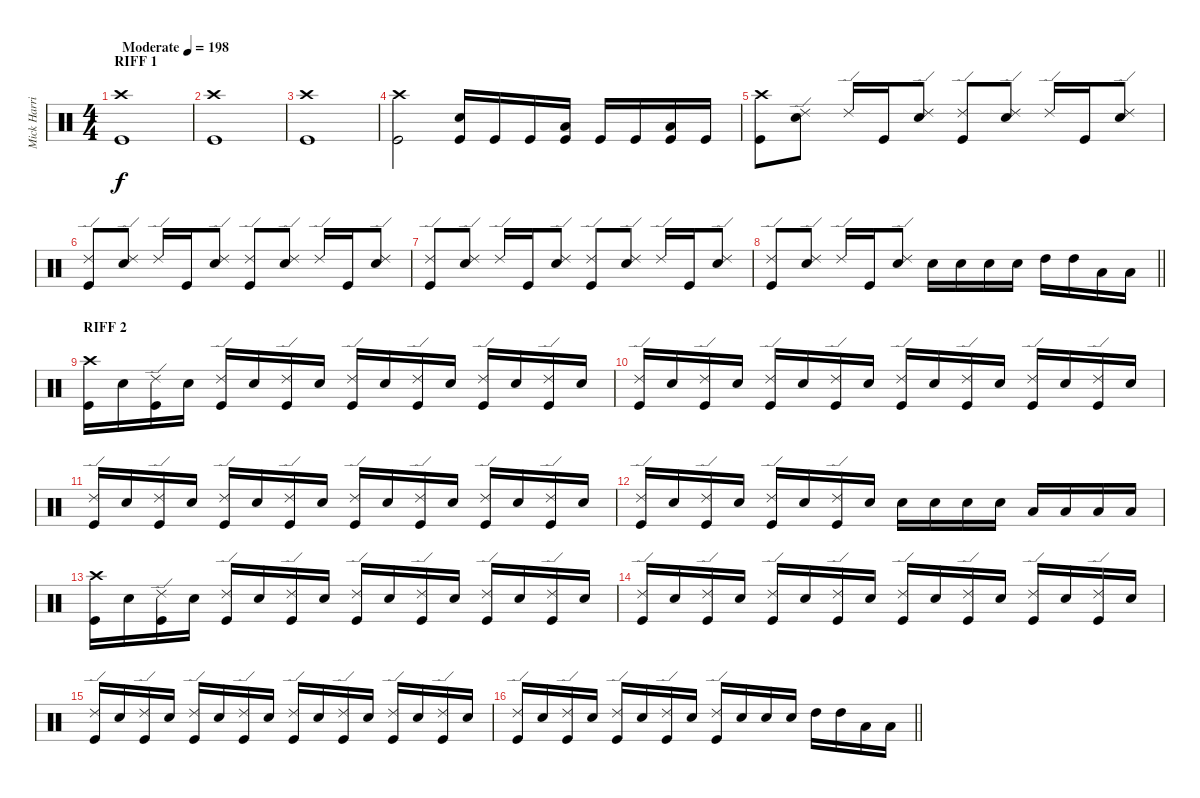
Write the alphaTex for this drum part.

\track ("Mick Harris" "Mick Harri") {instrument percussion}
\staff {score}
\articulation defaults
\ts (4 4)
\section ("" "RIFF 1")
\tempo (198 "Moderate")
\clef neutral
\ks c
("Crash high (hit)" "Kick (hit)").1{dy f} |
("Crash high (hit)" "Kick (hit)").1 |
("Crash high (hit)" "Kick (hit)").1 |
("Crash high (hit)" "Kick (hit)").2 ("Snare (hit) 2" "Kick (hit)").16 "Kick (hit)".16 "Kick (hit)".16 ("Low Tom (hit)" "Kick (hit)").16 "Kick (hit)".16 "Kick (hit)".16 ("Low Floor Tom (hit)" "Kick (hit)").16 "Kick (hit)".16 |
("Crash high (hit)" "Kick (hit)").8 ("Ride (edge) 2" "Snare (hit) 2").8 "Ride (edge) 2".16 "Kick (hit)".16 ("Ride (edge) 2" "Snare (hit) 2").8 ("Ride (edge) 2" "Kick (hit)").8 ("Ride (edge) 2" "Snare (hit) 2").8 "Ride (edge) 2".16 "Kick (hit)".16 ("Ride (edge) 2" "Snare (hit) 2").8 |
("Ride (edge) 2" "Kick (hit)").8 ("Ride (edge) 2" "Snare (hit) 2").8 "Ride (edge) 2".16 "Kick (hit)".16 ("Ride (edge) 2" "Snare (hit) 2").8 ("Ride (edge) 2" "Kick (hit)").8 ("Ride (edge) 2" "Snare (hit) 2").8 "Ride (edge) 2".16 "Kick (hit)".16 ("Ride (edge) 2" "Snare (hit) 2").8 |
("Ride (edge) 2" "Kick (hit)").8 ("Ride (edge) 2" "Snare (hit) 2").8 "Ride (edge) 2".16 "Kick (hit)".16 ("Ride (edge) 2" "Snare (hit) 2").8 ("Ride (edge) 2" "Kick (hit)").8 ("Ride (edge) 2" "Snare (hit) 2").8 "Ride (edge) 2".16 "Kick (hit)".16 ("Ride (edge) 2" "Snare (hit) 2").8 |
\barLineRight lightlight
("Ride (edge) 2" "Kick (hit)").8 ("Ride (edge) 2" "Snare (hit) 2").8 "Ride (edge) 2".16 "Kick (hit)".16 ("Ride (edge) 2" "Snare (hit) 2").8 "Snare (hit) 2".16 "Snare (hit) 2".16 "Snare (hit) 2".16 "Snare (hit) 2".16 "High Tom (hit)".16 "High Tom (hit)".16 "Low Tom (hit)".16 "Low Tom (hit)".16 |
\section ("" "RIFF 2")
("Crash high (hit)" "Kick (hit)").16 "Snare (hit) 2".16 ("Ride (edge) 2" "Kick (hit)").16 "Snare (hit) 2".16 ("Ride (edge) 2" "Kick (hit)").16 "Snare (hit) 2".16 ("Ride (edge) 2" "Kick (hit)").16 "Snare (hit) 2".16 ("Ride (edge) 2" "Kick (hit)").16 "Snare (hit) 2".16 ("Ride (edge) 2" "Kick (hit)").16 "Snare (hit) 2".16 ("Ride (edge) 2" "Kick (hit)").16 "Snare (hit) 2".16 ("Ride (edge) 2" "Kick (hit)").16 "Snare (hit) 2".16 |
("Ride (edge) 2" "Kick (hit)").16 "Snare (hit) 2".16 ("Ride (edge) 2" "Kick (hit)").16 "Snare (hit) 2".16 ("Ride (edge) 2" "Kick (hit)").16 "Snare (hit) 2".16 ("Ride (edge) 2" "Kick (hit)").16 "Snare (hit) 2".16 ("Ride (edge) 2" "Kick (hit)").16 "Snare (hit) 2".16 ("Ride (edge) 2" "Kick (hit)").16 "Snare (hit) 2".16 ("Ride (edge) 2" "Kick (hit)").16 "Snare (hit) 2".16 ("Ride (edge) 2" "Kick (hit)").16 "Snare (hit) 2".16 |
("Ride (edge) 2" "Kick (hit)").16 "Snare (hit) 2".16 ("Ride (edge) 2" "Kick (hit)").16 "Snare (hit) 2".16 ("Ride (edge) 2" "Kick (hit)").16 "Snare (hit) 2".16 ("Ride (edge) 2" "Kick (hit)").16 "Snare (hit) 2".16 ("Ride (edge) 2" "Kick (hit)").16 "Snare (hit) 2".16 ("Ride (edge) 2" "Kick (hit)").16 "Snare (hit) 2".16 ("Ride (edge) 2" "Kick (hit)").16 "Snare (hit) 2".16 ("Ride (edge) 2" "Kick (hit)").16 "Snare (hit) 2".16 |
("Ride (edge) 2" "Kick (hit)").16 "Snare (hit) 2".16 ("Ride (edge) 2" "Kick (hit)").16 "Snare (hit) 2".16 ("Ride (edge) 2" "Kick (hit)").16 "Snare (hit) 2".16 ("Ride (edge) 2" "Kick (hit)").16 "Snare (hit) 2".16 "Snare (hit) 2".16 "Snare (hit) 2".16 "Snare (hit) 2".16 "Snare (hit) 2".16 "Low Tom (hit)".16 "Low Tom (hit)".16 "Low Tom (hit)".16 "Low Tom (hit)".16 |
("Crash high (hit)" "Kick (hit)").16 "Snare (hit) 2".16 ("Ride (edge) 2" "Kick (hit)").16 "Snare (hit) 2".16 ("Ride (edge) 2" "Kick (hit)").16 "Snare (hit) 2".16 ("Ride (edge) 2" "Kick (hit)").16 "Snare (hit) 2".16 ("Ride (edge) 2" "Kick (hit)").16 "Snare (hit) 2".16 ("Ride (edge) 2" "Kick (hit)").16 "Snare (hit) 2".16 ("Ride (edge) 2" "Kick (hit)").16 "Snare (hit) 2".16 ("Ride (edge) 2" "Kick (hit)").16 "Snare (hit) 2".16 |
("Ride (edge) 2" "Kick (hit)").16 "Snare (hit) 2".16 ("Ride (edge) 2" "Kick (hit)").16 "Snare (hit) 2".16 ("Ride (edge) 2" "Kick (hit)").16 "Snare (hit) 2".16 ("Ride (edge) 2" "Kick (hit)").16 "Snare (hit) 2".16 ("Ride (edge) 2" "Kick (hit)").16 "Snare (hit) 2".16 ("Ride (edge) 2" "Kick (hit)").16 "Snare (hit) 2".16 ("Ride (edge) 2" "Kick (hit)").16 "Snare (hit) 2".16 ("Ride (edge) 2" "Kick (hit)").16 "Snare (hit) 2".16 |
("Ride (edge) 2" "Kick (hit)").16 "Snare (hit) 2".16 ("Ride (edge) 2" "Kick (hit)").16 "Snare (hit) 2".16 ("Ride (edge) 2" "Kick (hit)").16 "Snare (hit) 2".16 ("Ride (edge) 2" "Kick (hit)").16 "Snare (hit) 2".16 ("Ride (edge) 2" "Kick (hit)").16 "Snare (hit) 2".16 ("Ride (edge) 2" "Kick (hit)").16 "Snare (hit) 2".16 ("Ride (edge) 2" "Kick (hit)").16 "Snare (hit) 2".16 ("Ride (edge) 2" "Kick (hit)").16 "Snare (hit) 2".16 |
\barLineRight lightlight
("Ride (edge) 2" "Kick (hit)").16 "Snare (hit) 2".16 ("Ride (edge) 2" "Kick (hit)").16 "Snare (hit) 2".16 ("Ride (edge) 2" "Kick (hit)").16 "Snare (hit) 2".16 ("Ride (edge) 2" "Kick (hit)").16 "Snare (hit) 2".16 ("Ride (edge) 2" "Kick (hit)").16 "Snare (hit) 2".16 "Snare (hit) 2".16 "Snare (hit) 2".16 "High Tom (hit)".16 "High Tom (hit)".16 "Low Tom (hit)".16 "Low Tom (hit)".16
